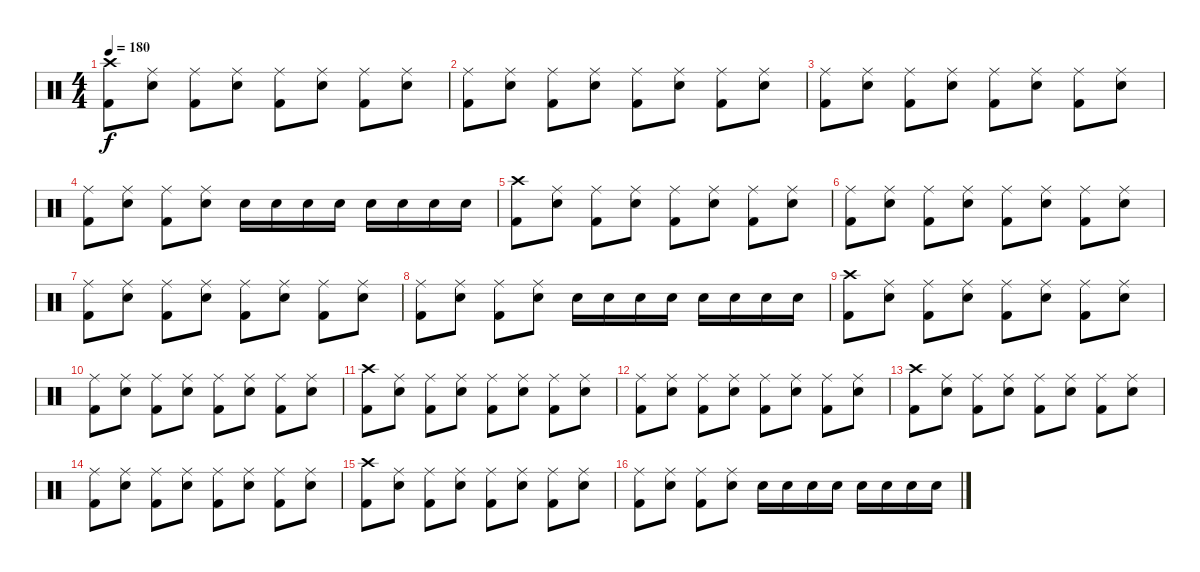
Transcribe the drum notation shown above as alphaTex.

\track "" {instrument percussion}
\staff {score}
\articulation defaults
\ts (4 4)
\tempo 180
\clef neutral
\ks c
("Kick (hit) 2" "Crash high (hit)").8{dy f} ("Snare (hit) 2" "Ride (middle)").8 ("Ride (middle)" "Kick (hit) 2").8 ("Snare (hit) 2" "Ride (middle)").8 ("Kick (hit) 2" "Ride (middle)").8 ("Ride (middle)" "Snare (hit) 2").8 ("Ride (middle)" "Kick (hit) 2").8 ("Ride (middle)" "Snare (hit) 2").8 |
("Kick (hit) 2" "Ride (middle)").8 ("Ride (middle)" "Snare (hit) 2").8 ("Ride (middle)" "Kick (hit) 2").8 ("Ride (middle)" "Snare (hit) 2").8 ("Ride (middle)" "Kick (hit) 2").8 ("Ride (middle)" "Snare (hit) 2").8 ("Kick (hit) 2" "Ride (middle)").8 ("Snare (hit) 2" "Ride (middle)").8 |
("Kick (hit) 2" "Ride (middle)").8 ("Ride (middle)" "Snare (hit) 2").8 ("Kick (hit) 2" "Ride (middle)").8 ("Ride (middle)" "Snare (hit) 2").8 ("Ride (middle)" "Kick (hit) 2").8 ("Ride (middle)" "Snare (hit) 2").8 ("Ride (middle)" "Kick (hit) 2").8 ("Ride (middle)" "Snare (hit) 2").8 |
("Ride (middle)" "Kick (hit) 2").8 ("Ride (middle)" "Snare (hit) 2").8 ("Ride (middle)" "Kick (hit) 2").8 ("Ride (middle)" "Snare (hit) 2").8 "Snare (hit) 2".16 "Snare (hit) 2".16 "Snare (hit) 2".16 "Snare (hit) 2".16 "Snare (hit) 2".16 "Snare (hit) 2".16 "Snare (hit) 2".16 "Snare (hit) 2".16 |
("Kick (hit) 2" "Crash high (hit)").8 ("Ride (middle)" "Snare (hit) 2").8 ("Kick (hit) 2" "Ride (middle)").8 ("Ride (middle)" "Snare (hit) 2").8 ("Ride (middle)" "Kick (hit) 2").8 ("Snare (hit) 2" "Ride (middle)").8 ("Ride (middle)" "Kick (hit) 2").8 ("Ride (middle)" "Snare (hit) 2").8 |
("Ride (middle)" "Kick (hit) 2").8 ("Snare (hit) 2" "Ride (middle)").8 ("Kick (hit) 2" "Ride (middle)").8 ("Snare (hit) 2" "Ride (middle)").8 ("Kick (hit) 2" "Ride (middle)").8 ("Snare (hit) 2" "Ride (middle)").8 ("Kick (hit) 2" "Ride (middle)").8 ("Ride (middle)" "Snare (hit) 2").8 |
("Ride (middle)" "Kick (hit) 2").8 ("Ride (middle)" "Snare (hit) 2").8 ("Ride (middle)" "Kick (hit) 2").8 ("Snare (hit) 2" "Ride (middle)").8 ("Ride (middle)" "Kick (hit) 2").8 ("Snare (hit) 2" "Ride (middle)").8 ("Ride (middle)" "Kick (hit) 2").8 ("Ride (middle)" "Snare (hit) 2").8 |
("Kick (hit) 2" "Ride (middle)").8 ("Ride (middle)" "Snare (hit) 2").8 ("Ride (middle)" "Kick (hit) 2").8 ("Ride (middle)" "Snare (hit) 2").8 "Snare (hit) 2".16 "Snare (hit) 2".16 "Snare (hit) 2".16 "Snare (hit) 2".16 "Snare (hit) 2".16 "Snare (hit) 2".16 "Snare (hit) 2".16 "Snare (hit) 2".16 |
("Crash high (hit)" "Kick (hit) 2").8 ("Ride (middle)" "Snare (hit) 2").8 ("Kick (hit) 2" "Ride (middle)").8 ("Ride (middle)" "Snare (hit) 2").8 ("Ride (middle)" "Kick (hit) 2").8 ("Ride (middle)" "Snare (hit) 2").8 ("Kick (hit) 2" "Ride (middle)").8 ("Snare (hit) 2" "Ride (middle)").8 |
("Kick (hit) 2" "Ride (middle)").8 ("Snare (hit) 2" "Ride (middle)").8 ("Kick (hit) 2" "Ride (middle)").8 ("Snare (hit) 2" "Ride (middle)").8 ("Ride (middle)" "Kick (hit) 2").8 ("Snare (hit) 2" "Ride (middle)").8 ("Ride (middle)" "Kick (hit) 2").8 ("Ride (middle)" "Snare (hit) 2").8 |
("Crash high (hit)" "Kick (hit) 2").8 ("Ride (middle)" "Snare (hit) 2").8 ("Ride (middle)" "Kick (hit) 2").8 ("Ride (middle)" "Snare (hit) 2").8 ("Ride (middle)" "Kick (hit) 2").8 ("Ride (middle)" "Snare (hit) 2").8 ("Ride (middle)" "Kick (hit) 2").8 ("Snare (hit) 2" "Ride (middle)").8 |
("Kick (hit) 2" "Ride (middle)").8 ("Snare (hit) 2" "Ride (middle)").8 ("Ride (middle)" "Kick (hit) 2").8 ("Snare (hit) 2" "Ride (middle)").8 ("Ride (middle)" "Kick (hit) 2").8 ("Snare (hit) 2" "Ride (middle)").8 ("Ride (middle)" "Kick (hit) 2").8 ("Ride (middle)" "Snare (hit) 2").8 |
("Crash high (hit)" "Kick (hit) 2").8 ("Snare (hit) 2" "Ride (middle)").8 ("Kick (hit) 2" "Ride (middle)").8 ("Snare (hit) 2" "Ride (middle)").8 ("Ride (middle)" "Kick (hit) 2").8 ("Snare (hit) 2" "Ride (middle)").8 ("Kick (hit) 2" "Ride (middle)").8 ("Ride (middle)" "Snare (hit) 2").8 |
("Ride (middle)" "Kick (hit) 2").8 ("Ride (middle)" "Snare (hit) 2").8 ("Kick (hit) 2" "Ride (middle)").8 ("Ride (middle)" "Snare (hit) 2").8 ("Ride (middle)" "Kick (hit) 2").8 ("Ride (middle)" "Snare (hit) 2").8 ("Ride (middle)" "Kick (hit) 2").8 ("Ride (middle)" "Snare (hit) 2").8 |
("Kick (hit) 2" "Crash high (hit)").8 ("Snare (hit) 2" "Ride (middle)").8 ("Kick (hit) 2" "Ride (middle)").8 ("Snare (hit) 2" "Ride (middle)").8 ("Ride (middle)" "Kick (hit) 2").8 ("Ride (middle)" "Snare (hit) 2").8 ("Ride (middle)" "Kick (hit) 2").8 ("Ride (middle)" "Snare (hit) 2").8 |
("Kick (hit) 2" "Ride (middle)").8 ("Snare (hit) 2" "Ride (middle)").8 ("Ride (middle)" "Kick (hit) 2").8 ("Ride (middle)" "Snare (hit) 2").8 "Snare (hit) 2".16 "Snare (hit) 2".16 "Snare (hit) 2".16 "Snare (hit) 2".16 "Snare (hit) 2".16 "Snare (hit) 2".16 "Snare (hit) 2".16 "Snare (hit) 2".16
